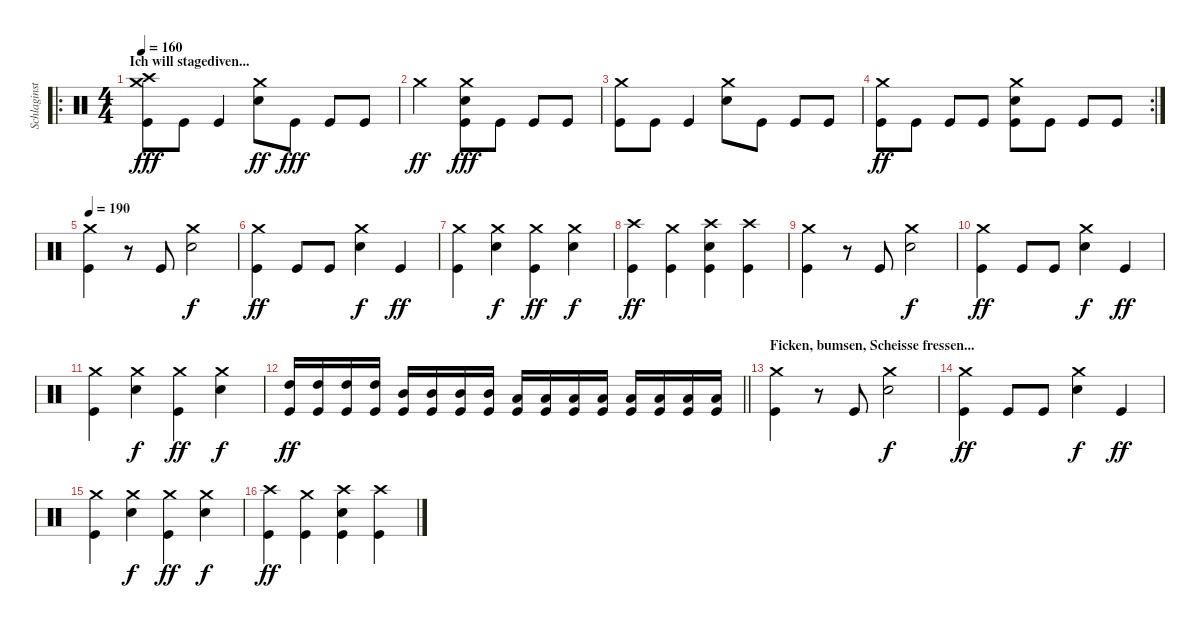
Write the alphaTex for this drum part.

\track ("Schlaginstrumente - Auswahl" "Schlaginst") {instrument percussion}
\staff {score}
\articulation defaults
\ro
\ts (4 4)
\section ("" "Ich will stagediven...")
\tempo 160
\clef neutral
\ks c
("Crash medium (hit)" "Crash high (hit)" "Kick (hit)").8{dy fff} "Kick (hit)".8 "Kick (hit)".4 ("Crash medium (hit)" "Electric Snare (hit)").8{dy ff} "Kick (hit)".8{dy fff} "Kick (hit)".8 "Kick (hit)".8 |
"Crash medium (hit)".2{dy ff} ("Crash medium (hit)" "Electric Snare (hit)" "Kick (hit)").8{dy fff} "Kick (hit)".8 "Kick (hit)".8 "Kick (hit)".8 |
("Crash medium (hit)" "Kick (hit)").8 "Kick (hit)".8 "Kick (hit)".4 ("Crash medium (hit)" "Electric Snare (hit)").8 "Kick (hit)".8 "Kick (hit)".8 "Kick (hit)".8 |
\rc 2
("Crash medium (hit)" "Kick (hit)").8{dy ff} "Kick (hit)".8 "Kick (hit)".8 "Kick (hit)".8 ("Crash medium (hit)" "Electric Snare (hit)" "Kick (hit)").8 "Kick (hit)".8 "Kick (hit)".8 "Kick (hit)".8 |
\tempo 190
("Crash medium (hit)" "Kick (hit)").4 r.8 "Kick (hit)".8 ("Crash medium (hit)" "Electric Snare (hit)").2{dy f} |
("Crash medium (hit)" "Kick (hit)").4{dy ff} "Kick (hit)".8 "Kick (hit)".8 ("Crash medium (hit)" "Electric Snare (hit)").4{dy f} "Kick (hit)".4{dy ff} |
("Crash medium (hit)" "Kick (hit)").4 ("Crash medium (hit)" "Electric Snare (hit)").4{dy f} ("Crash medium (hit)" "Kick (hit)").4{dy ff} ("Crash medium (hit)" "Electric Snare (hit)").4{dy f} |
("Crash high (hit)" "Kick (hit)").4{dy ff} ("Crash medium (hit)" "Kick (hit)").4 ("Crash high (hit)" "Electric Snare (hit)" "Kick (hit)").4 ("Crash high (hit)" "Kick (hit)").4 |
("Crash medium (hit)" "Kick (hit)").4 r.8 "Kick (hit)".8 ("Crash medium (hit)" "Electric Snare (hit)").2{dy f} |
("Crash medium (hit)" "Kick (hit)").4{dy ff} "Kick (hit)".8 "Kick (hit)".8 ("Crash medium (hit)" "Electric Snare (hit)").4{dy f} "Kick (hit)".4{dy ff} |
("Crash medium (hit)" "Kick (hit)").4 ("Crash medium (hit)" "Electric Snare (hit)").4{dy f} ("Crash medium (hit)" "Kick (hit)").4{dy ff} ("Crash medium (hit)" "Electric Snare (hit)").4{dy f} |
\barLineRight lightlight
("High Tom (hit)" "Kick (hit)").16{dy ff} ("High Tom (hit)" "Kick (hit)").16 ("High Tom (hit)" "Kick (hit)").16 ("High Tom (hit)" "Kick (hit)").16 ("Mid Tom (hit)" "Kick (hit)").16 ("Mid Tom (hit)" "Kick (hit)").16 ("Mid Tom (hit)" "Kick (hit)").16 ("Mid Tom (hit)" "Kick (hit)").16 ("Low Tom (hit)" "Kick (hit)").16 ("Low Tom (hit)" "Kick (hit)").16 ("Low Tom (hit)" "Kick (hit)").16 ("Low Tom (hit)" "Kick (hit)").16 ("Low Floor Tom (hit)" "Kick (hit)").16 ("Low Floor Tom (hit)" "Kick (hit)").16 ("Low Floor Tom (hit)" "Kick (hit)").16 ("Low Floor Tom (hit)" "Kick (hit)").16 |
\section ("" "Ficken, bumsen, Scheisse fressen...")
("Crash medium (hit)" "Kick (hit)").4 r.8 "Kick (hit)".8 ("Crash medium (hit)" "Electric Snare (hit)").2{dy f} |
("Crash medium (hit)" "Kick (hit)").4{dy ff} "Kick (hit)".8 "Kick (hit)".8 ("Crash medium (hit)" "Electric Snare (hit)").4{dy f} "Kick (hit)".4{dy ff} |
("Crash medium (hit)" "Kick (hit)").4 ("Crash medium (hit)" "Electric Snare (hit)").4{dy f} ("Crash medium (hit)" "Kick (hit)").4{dy ff} ("Crash medium (hit)" "Electric Snare (hit)").4{dy f} |
("Crash high (hit)" "Kick (hit)").4{dy ff} ("Crash medium (hit)" "Kick (hit)").4 ("Crash high (hit)" "Electric Snare (hit)" "Kick (hit)").4 ("Crash high (hit)" "Kick (hit)").4
